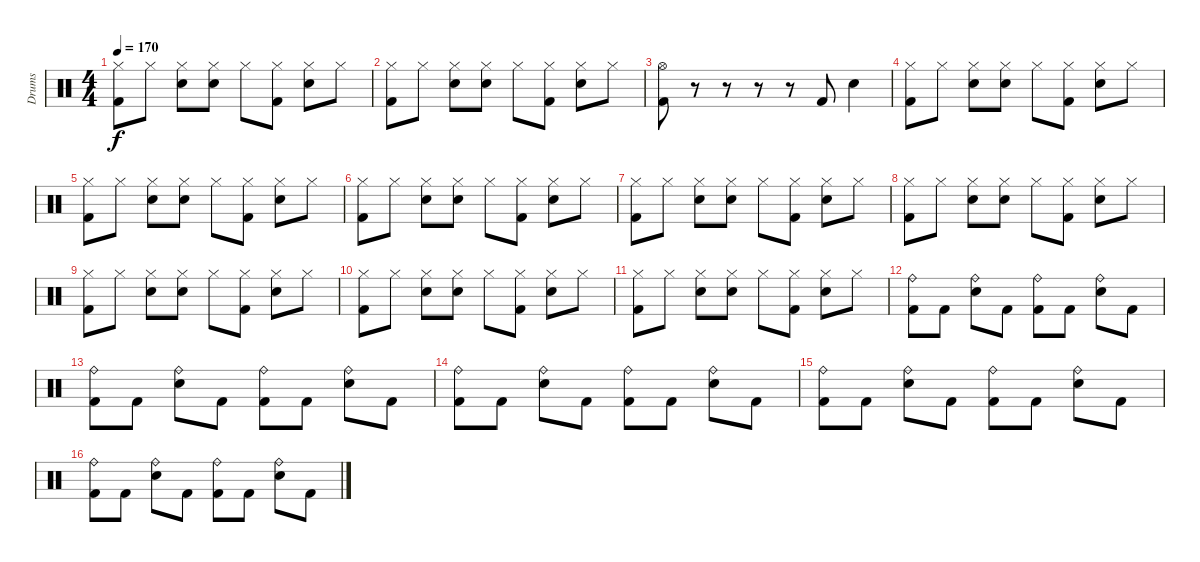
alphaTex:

\track ("Drums" "Drums") {instrument percussion}
\staff {score}
\articulation defaults
\ts (4 4)
\tempo 170
\clef neutral
\ks c
("Hi-Hat (closed)" "Kick (hit) 2").8{dy f} "Hi-Hat (closed)".8 ("Hi-Hat (closed)" "Electric Snare (hit)").8 ("Hi-Hat (closed)" "Electric Snare (hit)").8 "Hi-Hat (closed)".8 ("Hi-Hat (closed)" "Kick (hit) 2").8 ("Hi-Hat (closed)" "Electric Snare (hit)").8 "Hi-Hat (closed)".8 |
("Hi-Hat (closed)" "Kick (hit) 2").8 "Hi-Hat (closed)".8 ("Hi-Hat (closed)" "Electric Snare (hit)").8 ("Hi-Hat (closed)" "Electric Snare (hit)").8 "Hi-Hat (closed)".8 ("Hi-Hat (closed)" "Kick (hit) 2").8 ("Hi-Hat (closed)" "Electric Snare (hit)").8 "Hi-Hat (closed)".8 |
("Hi-Hat (open)" "Kick (hit) 2").8 r.8 r.8 r.8 r.8 "Kick (hit) 2".8 "Electric Snare (hit)".4 |
("Hi-Hat (closed)" "Kick (hit) 2").8 "Hi-Hat (closed)".8 ("Hi-Hat (closed)" "Electric Snare (hit)").8 ("Hi-Hat (closed)" "Electric Snare (hit)").8 "Hi-Hat (closed)".8 ("Hi-Hat (closed)" "Kick (hit) 2").8 ("Hi-Hat (closed)" "Electric Snare (hit)").8 "Hi-Hat (closed)".8 |
("Hi-Hat (closed)" "Kick (hit) 2").8 "Hi-Hat (closed)".8 ("Hi-Hat (closed)" "Electric Snare (hit)").8 ("Hi-Hat (closed)" "Electric Snare (hit)").8 "Hi-Hat (closed)".8 ("Hi-Hat (closed)" "Kick (hit) 2").8 ("Hi-Hat (closed)" "Electric Snare (hit)").8 "Hi-Hat (closed)".8 |
("Hi-Hat (closed)" "Kick (hit) 2").8 "Hi-Hat (closed)".8 ("Hi-Hat (closed)" "Electric Snare (hit)").8 ("Hi-Hat (closed)" "Electric Snare (hit)").8 "Hi-Hat (closed)".8 ("Hi-Hat (closed)" "Kick (hit) 2").8 ("Hi-Hat (closed)" "Electric Snare (hit)").8 "Hi-Hat (closed)".8 |
("Hi-Hat (closed)" "Kick (hit) 2").8 "Hi-Hat (closed)".8 ("Hi-Hat (closed)" "Electric Snare (hit)").8 ("Hi-Hat (closed)" "Electric Snare (hit)").8 "Hi-Hat (closed)".8 ("Hi-Hat (closed)" "Kick (hit) 2").8 ("Hi-Hat (closed)" "Electric Snare (hit)").8 "Hi-Hat (closed)".8 |
("Hi-Hat (closed)" "Kick (hit) 2").8 "Hi-Hat (closed)".8 ("Hi-Hat (closed)" "Electric Snare (hit)").8 ("Hi-Hat (closed)" "Electric Snare (hit)").8 "Hi-Hat (closed)".8 ("Hi-Hat (closed)" "Kick (hit) 2").8 ("Hi-Hat (closed)" "Electric Snare (hit)").8 "Hi-Hat (closed)".8 |
("Hi-Hat (closed)" "Kick (hit) 2").8 "Hi-Hat (closed)".8 ("Hi-Hat (closed)" "Electric Snare (hit)").8 ("Hi-Hat (closed)" "Electric Snare (hit)").8 "Hi-Hat (closed)".8 ("Hi-Hat (closed)" "Kick (hit) 2").8 ("Hi-Hat (closed)" "Electric Snare (hit)").8 "Hi-Hat (closed)".8 |
("Hi-Hat (closed)" "Kick (hit) 2").8 "Hi-Hat (closed)".8 ("Hi-Hat (closed)" "Electric Snare (hit)").8 ("Hi-Hat (closed)" "Electric Snare (hit)").8 "Hi-Hat (closed)".8 ("Hi-Hat (closed)" "Kick (hit) 2").8 ("Hi-Hat (closed)" "Electric Snare (hit)").8 "Hi-Hat (closed)".8 |
("Hi-Hat (closed)" "Kick (hit) 2").8 "Hi-Hat (closed)".8 ("Hi-Hat (closed)" "Electric Snare (hit)").8 ("Hi-Hat (closed)" "Electric Snare (hit)").8 "Hi-Hat (closed)".8 ("Hi-Hat (closed)" "Kick (hit) 2").8 ("Hi-Hat (closed)" "Electric Snare (hit)").8 "Hi-Hat (closed)".8 |
("Ride (bell)" "Kick (hit) 2").8 "Kick (hit) 2".8 ("Ride (bell)" "Electric Snare (hit)").8 "Kick (hit) 2".8 ("Ride (bell)" "Kick (hit) 2").8 "Kick (hit) 2".8 ("Ride (bell)" "Electric Snare (hit)").8 "Kick (hit) 2".8 |
("Ride (bell)" "Kick (hit) 2").8 "Kick (hit) 2".8 ("Ride (bell)" "Electric Snare (hit)").8 "Kick (hit) 2".8 ("Ride (bell)" "Kick (hit) 2").8 "Kick (hit) 2".8 ("Ride (bell)" "Electric Snare (hit)").8 "Kick (hit) 2".8 |
("Ride (bell)" "Kick (hit) 2").8 "Kick (hit) 2".8 ("Ride (bell)" "Electric Snare (hit)").8 "Kick (hit) 2".8 ("Ride (bell)" "Kick (hit) 2").8 "Kick (hit) 2".8 ("Ride (bell)" "Electric Snare (hit)").8 "Kick (hit) 2".8 |
("Ride (bell)" "Kick (hit) 2").8 "Kick (hit) 2".8 ("Ride (bell)" "Electric Snare (hit)").8 "Kick (hit) 2".8 ("Ride (bell)" "Kick (hit) 2").8 "Kick (hit) 2".8 ("Ride (bell)" "Electric Snare (hit)").8 "Kick (hit) 2".8 |
("Ride (bell)" "Kick (hit) 2").8 "Kick (hit) 2".8 ("Ride (bell)" "Electric Snare (hit)").8 "Kick (hit) 2".8 ("Ride (bell)" "Kick (hit) 2").8 "Kick (hit) 2".8 ("Ride (bell)" "Electric Snare (hit)").8 "Kick (hit) 2".8
